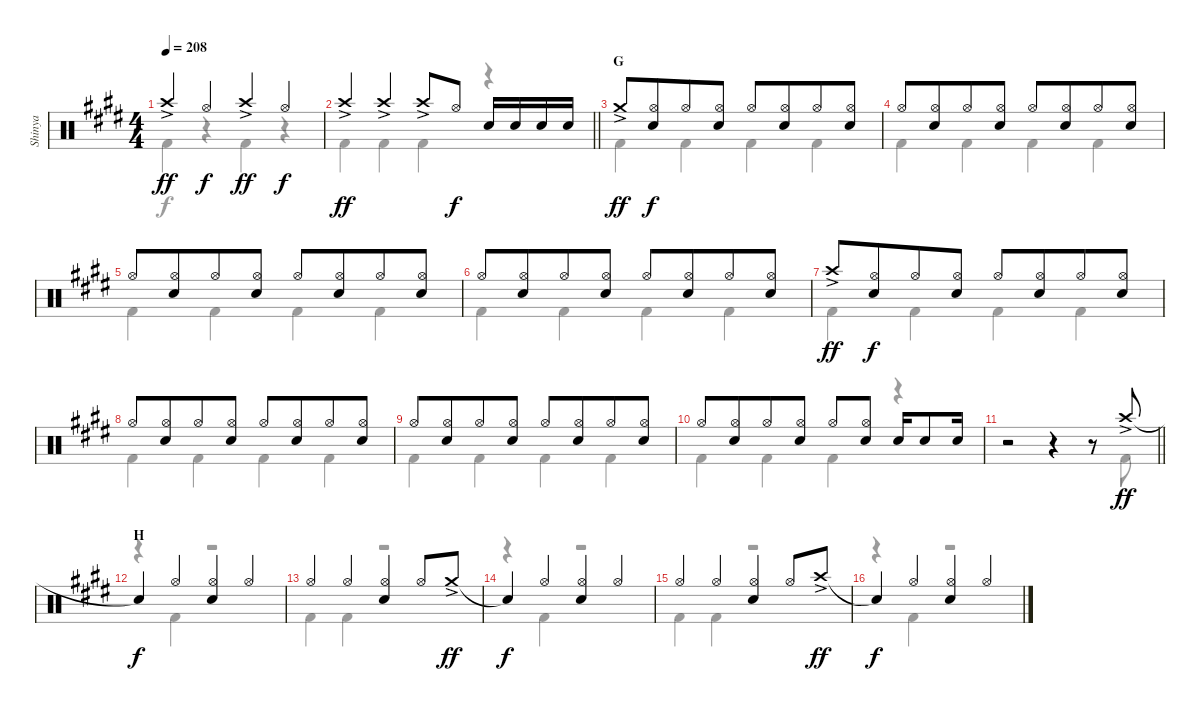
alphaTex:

\track ("Shinya" "Shinya") {instrument percussion}
\staff {score}
\articulation defaults
\voice
\ts (4 4)
\tempo 208
\clef neutral
\ks c#minor "Crash high (hit)"{ac}.4{dy ff} "Hi-Hat (open)".4{dy f} "Crash high (hit)"{ac}.4{dy ff} "Hi-Hat (open)".4{dy f}
|
\barLineRight lightlight "Crash high (hit)"{ac}.4{dy ff} "Crash high (hit)"{ac}.4 "Crash high (hit)"{ac}.8 "Hi-Hat (open)".8{dy f} "Snare (hit) 2".16 "Snare (hit) 2".16 "Snare (hit) 2".16 "Snare (hit) 2".16
|
\section ("" "G")
"Crash medium (hit)"{ac}.8{dy ff} ("Hi-Hat (open)" "Snare (hit) 2").8{dy f beam merge} "Hi-Hat (open)".8 ("Hi-Hat (open)" "Snare (hit) 2").8 "Hi-Hat (open)".8 ("Hi-Hat (open)" "Snare (hit) 2").8{beam merge} "Hi-Hat (open)".8 ("Hi-Hat (open)" "Snare (hit) 2").8 |
"Hi-Hat (open)".8 ("Hi-Hat (open)" "Snare (hit) 2").8{beam merge} "Hi-Hat (open)".8 ("Hi-Hat (open)" "Snare (hit) 2").8 "Hi-Hat (open)".8 ("Hi-Hat (open)" "Snare (hit) 2").8{beam merge} "Hi-Hat (open)".8 ("Hi-Hat (open)" "Snare (hit) 2").8 |
"Hi-Hat (open)".8 ("Hi-Hat (open)" "Snare (hit) 2").8{beam merge} "Hi-Hat (open)".8 ("Hi-Hat (open)" "Snare (hit) 2").8 "Hi-Hat (open)".8 ("Hi-Hat (open)" "Snare (hit) 2").8{beam merge} "Hi-Hat (open)".8 ("Hi-Hat (open)" "Snare (hit) 2").8 |
"Hi-Hat (open)".8 ("Hi-Hat (open)" "Snare (hit) 2").8{beam merge} "Hi-Hat (open)".8 ("Hi-Hat (open)" "Snare (hit) 2").8 "Hi-Hat (open)".8 ("Hi-Hat (open)" "Snare (hit) 2").8{beam merge} "Hi-Hat (open)".8 ("Hi-Hat (open)" "Snare (hit) 2").8 |
"Crash high (hit)"{ac}.8{dy ff} ("Hi-Hat (open)" "Snare (hit) 2").8{dy f beam merge} "Hi-Hat (open)".8 ("Hi-Hat (open)" "Snare (hit) 2").8 "Hi-Hat (open)".8 ("Hi-Hat (open)" "Snare (hit) 2").8{beam merge} "Hi-Hat (open)".8 ("Hi-Hat (open)" "Snare (hit) 2").8 |
"Hi-Hat (open)".8 ("Hi-Hat (open)" "Snare (hit) 2").8{beam merge} "Hi-Hat (open)".8 ("Hi-Hat (open)" "Snare (hit) 2").8 "Hi-Hat (open)".8 ("Hi-Hat (open)" "Snare (hit) 2").8{beam merge} "Hi-Hat (open)".8 ("Hi-Hat (open)" "Snare (hit) 2").8 |
"Hi-Hat (open)".8 ("Hi-Hat (open)" "Snare (hit) 2").8{beam merge} "Hi-Hat (open)".8 ("Hi-Hat (open)" "Snare (hit) 2").8 "Hi-Hat (open)".8 ("Hi-Hat (open)" "Snare (hit) 2").8{beam merge} "Hi-Hat (open)".8 ("Hi-Hat (open)" "Snare (hit) 2").8 |
"Hi-Hat (open)".8 ("Hi-Hat (open)" "Snare (hit) 2").8{beam merge} "Hi-Hat (open)".8 ("Hi-Hat (open)" "Snare (hit) 2").8 "Hi-Hat (open)".8 ("Hi-Hat (open)" "Snare (hit) 2").8 "Snare (hit) 2".16 "Snare (hit) 2".8 "Snare (hit) 2".16 |
\barLineRight lightlight
r.2 r.4 r.8 "Crash high (hit)"{ac}.8{dy ff} |
\section ("" "H")
"Snare (hit)"{t}.4{dy f} "Hi-Hat (open)".4 ("Hi-Hat (open)" "Snare (hit) 2").4 "Hi-Hat (open)".4 |
"Hi-Hat (open)".4 "Hi-Hat (open)".4 ("Hi-Hat (open)" "Snare (hit) 2").4 "Hi-Hat (open)".8 "Crash medium (hit)"{ac}.8{dy ff} |
"Snare (hit)"{t}.4{dy f} "Hi-Hat (open)".4 ("Hi-Hat (open)" "Snare (hit) 2").4 "Hi-Hat (open)".4 |
"Hi-Hat (open)".4 "Hi-Hat (open)".4 ("Hi-Hat (open)" "Snare (hit) 2").4 "Hi-Hat (open)".8 "Crash high (hit)"{ac}.8{dy ff} |
"Snare (hit)"{t}.4{dy f} "Hi-Hat (open)".4 ("Hi-Hat (open)" "Snare (hit) 2").4 "Hi-Hat (open)".4
\voice
\clef neutral
\ottava regular
\simile none
\ks c#minor "Kick (hit) 2".4{dy f}
r.4 "Kick (hit) 2".4 r.4 |
\barLineRight lightlight "Kick (hit) 2".4 "Kick (hit) 2".4 "Kick (hit) 2".4
r.4 |
"Kick (hit) 2".4 "Kick (hit) 2".4 "Kick (hit) 2".4 "Kick (hit) 2".4 |
"Kick (hit) 2".4 "Kick (hit) 2".4 "Kick (hit) 2".4 "Kick (hit) 2".4 |
"Kick (hit) 2".4 "Kick (hit) 2".4 "Kick (hit) 2".4 "Kick (hit) 2".4 |
"Kick (hit) 2".4 "Kick (hit) 2".4 "Kick (hit) 2".4 "Kick (hit) 2".4 |
"Kick (hit) 2".4 "Kick (hit) 2".4 "Kick (hit) 2".4 "Kick (hit) 2".4 |
"Kick (hit) 2".4 "Kick (hit) 2".4 "Kick (hit) 2".4 "Kick (hit) 2".4 |
"Kick (hit) 2".4 "Kick (hit) 2".4 "Kick (hit) 2".4 "Kick (hit) 2".4 |
"Kick (hit) 2".4 "Kick (hit) 2".4 "Kick (hit) 2".4 r.4 |
\barLineRight lightlight
r.2 r.4 r.8 "Kick (hit) 2".8 |
r.4 "Kick (hit) 2".4 r.2 |
"Kick (hit) 2".4 "Kick (hit) 2".4 r.2 |
r.4 "Kick (hit) 2".4 r.2 |
"Kick (hit) 2".4 "Kick (hit) 2".4 r.2 |
r.4 "Kick (hit) 2".4 r.2
